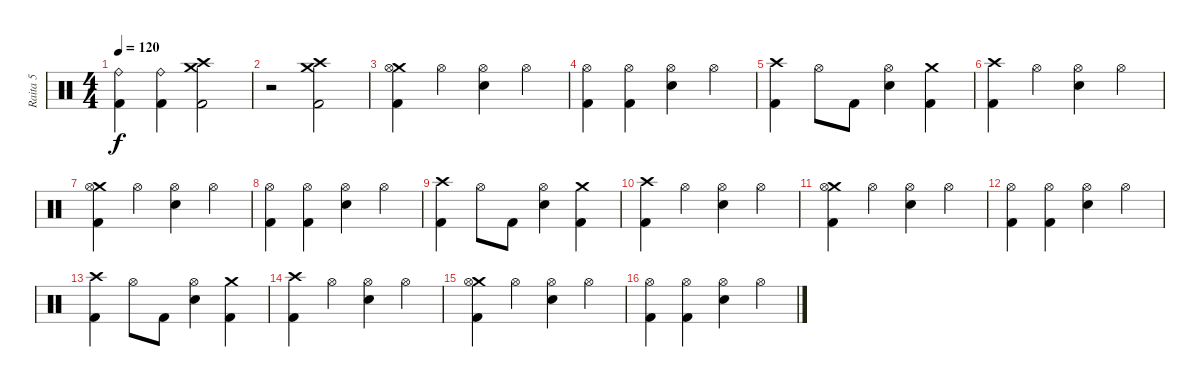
\track ("Raita 5" "Raita 5") {instrument percussion}
\staff {score}
\articulation defaults
\ts (4 4)
\tempo 120
\clef neutral
\ks c
("Ride (bell)" "Kick (hit) 2").4{dy f} ("Ride (bell)" "Kick (hit) 2").4 ("Crash medium (hit)" "Crash high (hit)" "Kick (hit) 2").2 |
r.2 ("Crash medium (hit)" "Crash high (hit)" "Kick (hit) 2").2 |
("Crash medium (hit)" "Hi-Hat (open)" "Kick (hit) 2").4 "Hi-Hat (open)".4 ("Hi-Hat (open)" "Snare (hit) 2").4 "Hi-Hat (open)".4 |
("Hi-Hat (open)" "Kick (hit) 2").4 ("Hi-Hat (open)" "Kick (hit) 2").4 ("Hi-Hat (open)" "Snare (hit) 2").4 "Hi-Hat (open)".4 |
("Crash high (hit)" "Kick (hit) 2").4 "Hi-Hat (open)".8 "Kick (hit) 2".8 ("Hi-Hat (open)" "Snare (hit) 2").4 ("Crash medium (hit)" "Kick (hit) 2").4 |
("Crash high (hit)" "Kick (hit) 2").4 "Hi-Hat (open)".4 ("Hi-Hat (open)" "Snare (hit) 2").4 "Hi-Hat (open)".4 |
("Crash medium (hit)" "Hi-Hat (open)" "Kick (hit) 2").4 "Hi-Hat (open)".4 ("Hi-Hat (open)" "Snare (hit) 2").4 "Hi-Hat (open)".4 |
("Hi-Hat (open)" "Kick (hit) 2").4 ("Hi-Hat (open)" "Kick (hit) 2").4 ("Hi-Hat (open)" "Snare (hit) 2").4 "Hi-Hat (open)".4 |
("Crash high (hit)" "Kick (hit) 2").4 "Hi-Hat (open)".8 "Kick (hit) 2".8 ("Hi-Hat (open)" "Snare (hit) 2").4 ("Crash medium (hit)" "Kick (hit) 2").4 |
("Crash high (hit)" "Kick (hit) 2").4 "Hi-Hat (open)".4 ("Hi-Hat (open)" "Snare (hit) 2").4 "Hi-Hat (open)".4 |
("Crash medium (hit)" "Hi-Hat (open)" "Kick (hit) 2").4 "Hi-Hat (open)".4 ("Hi-Hat (open)" "Snare (hit) 2").4 "Hi-Hat (open)".4 |
("Hi-Hat (open)" "Kick (hit) 2").4 ("Hi-Hat (open)" "Kick (hit) 2").4 ("Hi-Hat (open)" "Snare (hit) 2").4 "Hi-Hat (open)".4 |
("Crash high (hit)" "Kick (hit) 2").4 "Hi-Hat (open)".8 "Kick (hit) 2".8 ("Hi-Hat (open)" "Snare (hit) 2").4 ("Crash medium (hit)" "Kick (hit) 2").4 |
("Crash high (hit)" "Kick (hit) 2").4 "Hi-Hat (open)".4 ("Hi-Hat (open)" "Snare (hit) 2").4 "Hi-Hat (open)".4 |
("Crash medium (hit)" "Hi-Hat (open)" "Kick (hit) 2").4 "Hi-Hat (open)".4 ("Hi-Hat (open)" "Snare (hit) 2").4 "Hi-Hat (open)".4 |
("Hi-Hat (open)" "Kick (hit) 2").4 ("Hi-Hat (open)" "Kick (hit) 2").4 ("Hi-Hat (open)" "Snare (hit) 2").4 "Hi-Hat (open)".4
